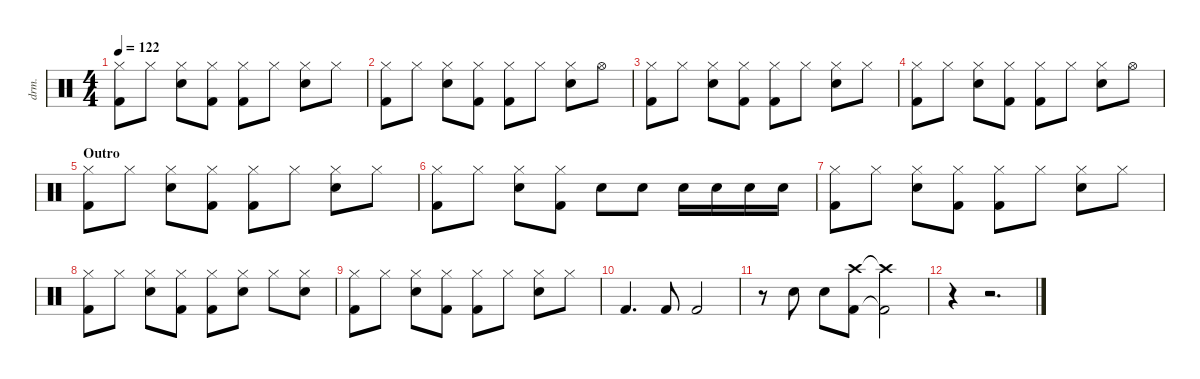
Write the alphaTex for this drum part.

\defaultSystemsLayout 4
\hideDynamics
\bracketExtendMode nobrackets
\track ("Drumkit" "drm.") {defaultSystemsLayout 4 instrument percussion}
\staff {score}
\articulation defaults
\ts (4 4)
\tempo 122
\clef neutral
\ks c
("Hi-Hat (closed)" "Kick (hit) 2").8{dy f beam Down} "Hi-Hat (closed)".8{beam Down} ("Hi-Hat (closed)" "Snare (hit) 2").8{beam Down} ("Hi-Hat (closed)" "Kick (hit) 2").8{beam Down} ("Hi-Hat (closed)" "Kick (hit) 2").8{beam Down} "Hi-Hat (closed)".8{beam Down} ("Hi-Hat (closed)" "Snare (hit) 2").8{beam Down} "Hi-Hat (closed)".8{beam Down} |
("Hi-Hat (closed)" "Kick (hit) 2").8{beam Down} "Hi-Hat (closed)".8{beam Down} ("Hi-Hat (closed)" "Snare (hit) 2").8{beam Down} ("Hi-Hat (closed)" "Kick (hit) 2").8{beam Down} ("Hi-Hat (closed)" "Kick (hit) 2").8{beam Down} "Hi-Hat (closed)".8{beam Down} ("Hi-Hat (closed)" "Snare (hit) 2").8{beam Down} "Hi-Hat (open)".8{beam Down} |
("Hi-Hat (closed)" "Kick (hit) 2").8{beam Down} "Hi-Hat (closed)".8{beam Down} ("Hi-Hat (closed)" "Snare (hit) 2").8{beam Down} ("Hi-Hat (closed)" "Kick (hit) 2").8{beam Down} ("Hi-Hat (closed)" "Kick (hit) 2").8{beam Down} "Hi-Hat (closed)".8{beam Down} ("Hi-Hat (closed)" "Snare (hit) 2").8{beam Down} "Hi-Hat (closed)".8{beam Down} |
("Hi-Hat (closed)" "Kick (hit) 2").8{beam Down} "Hi-Hat (closed)".8{beam Down} ("Hi-Hat (closed)" "Snare (hit) 2").8{beam Down} ("Hi-Hat (closed)" "Kick (hit) 2").8{beam Down} ("Hi-Hat (closed)" "Kick (hit) 2").8{beam Down} "Hi-Hat (closed)".8{beam Down} ("Hi-Hat (closed)" "Snare (hit) 2").8{beam Down} "Hi-Hat (open)".8{beam Down} |
\section ("" "Outro")
("Hi-Hat (closed)" "Kick (hit) 2").8{beam Down} "Hi-Hat (closed)".8{beam Down} ("Hi-Hat (closed)" "Snare (hit) 2").8{beam Down} ("Hi-Hat (closed)" "Kick (hit) 2").8{beam Down} ("Hi-Hat (closed)" "Kick (hit) 2").8{beam Down} "Hi-Hat (closed)".8{beam Down} ("Hi-Hat (closed)" "Snare (hit) 2").8{beam Down} "Hi-Hat (closed)".8{beam Down} |
("Hi-Hat (closed)" "Kick (hit) 2").8{beam Down} "Hi-Hat (closed)".8{beam Down} ("Hi-Hat (closed)" "Snare (hit) 2").8{beam Down} ("Hi-Hat (closed)" "Kick (hit) 2").8{beam Down} "Snare (hit) 2".8{beam Down} "Snare (hit) 2".8{beam Down} "Snare (hit) 2".16{beam Down} "Snare (hit) 2".16{beam Down} "Snare (hit) 2".16{beam Down} "Snare (hit) 2".16{beam Down} |
("Hi-Hat (closed)" "Kick (hit) 2").8{beam Down} "Hi-Hat (closed)".8{beam Down} ("Hi-Hat (closed)" "Snare (hit) 2").8{beam Down} ("Hi-Hat (closed)" "Kick (hit) 2").8{beam Down} ("Hi-Hat (closed)" "Kick (hit) 2").8{beam Down} "Hi-Hat (closed)".8{beam Down} ("Hi-Hat (closed)" "Snare (hit) 2").8{beam Down} "Hi-Hat (closed)".8{beam Down} |
("Hi-Hat (closed)" "Kick (hit) 2").8{beam Down} "Hi-Hat (closed)".8{beam Down} ("Hi-Hat (closed)" "Snare (hit) 2").8{beam Down} ("Hi-Hat (closed)" "Kick (hit) 2").8{beam Down} ("Hi-Hat (closed)" "Kick (hit) 2").8{beam Down} ("Hi-Hat (closed)" "Snare (hit) 2").8{beam Down} "Hi-Hat (closed)".8{beam Down} ("Hi-Hat (closed)" "Snare (hit) 2").8{beam Down} |
("Hi-Hat (closed)" "Kick (hit) 2").8{beam Down} "Hi-Hat (closed)".8{beam Down} ("Hi-Hat (closed)" "Snare (hit) 2").8{beam Down} ("Hi-Hat (closed)" "Kick (hit) 2").8{beam Down} ("Hi-Hat (closed)" "Kick (hit) 2").8{beam Down} "Hi-Hat (closed)".8{beam Down} ("Hi-Hat (closed)" "Snare (hit) 2").8{beam Down} "Hi-Hat (closed)".8{beam Down} |
"Kick (hit) 2".4{d beam Up} "Kick (hit) 2".8{beam Up} "Kick (hit) 2".2{beam Up} |
r.8{beam Down} "Snare (hit) 2".8{beam Down} "Snare (hit) 2".8{beam Down} ("Crash high (hit)" "Kick (hit) 2").8{beam Down} ("Crash high (hit)"{t} "Kick (hit) 2"{t}).2{beam Down} |
r.4{beam Down} r.2{d beam Down}
